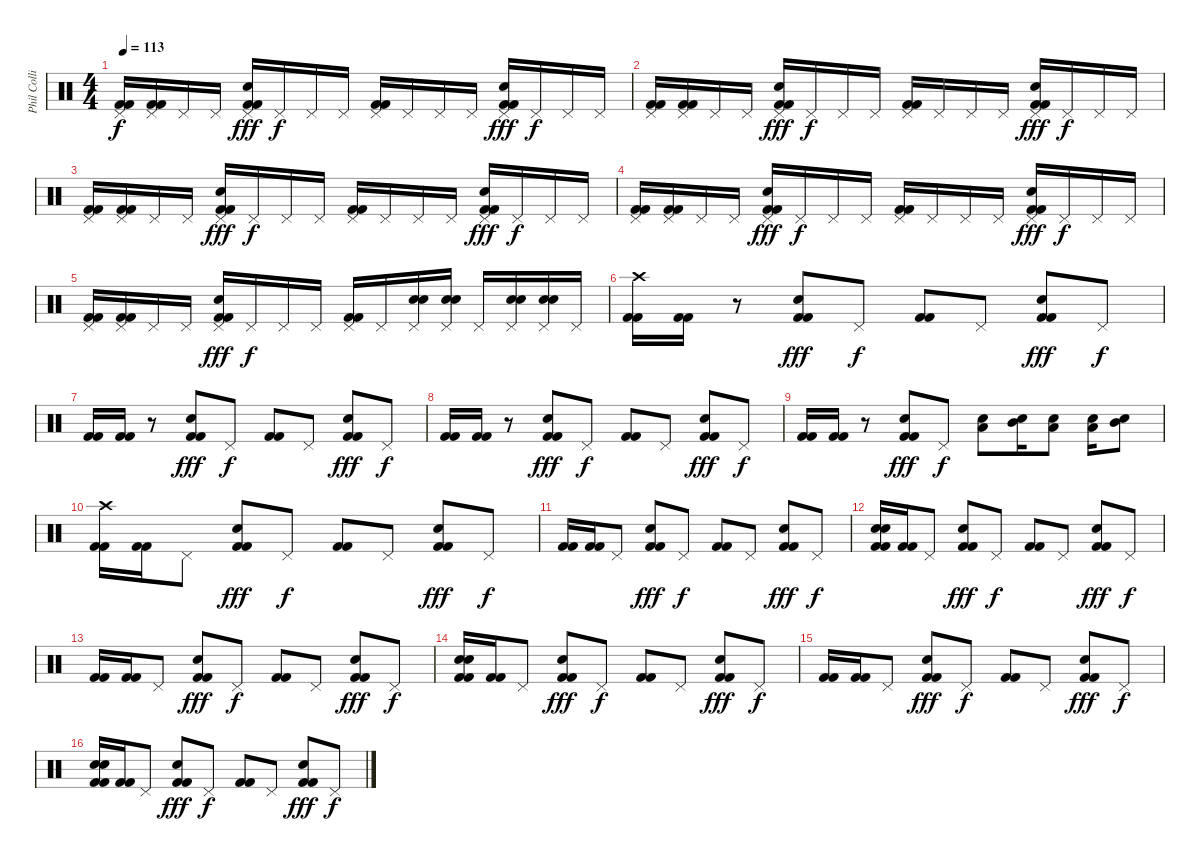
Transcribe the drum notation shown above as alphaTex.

\track ("Phil Collins" "Phil Colli") {instrument percussion}
\staff {score}
\articulation defaults
\ts (4 4)
\tempo 113
\clef neutral
\ks c
("Pedal Hi-Hat (hit)" "Kick (hit) 2" "Kick (hit) 2").16{dy f} ("Pedal Hi-Hat (hit)" "Kick (hit) 2" "Kick (hit) 2").16 "Pedal Hi-Hat (hit)".16 "Pedal Hi-Hat (hit)".16 ("Pedal Hi-Hat (hit)" "Electric Snare (hit)" "Kick (hit) 2" "Kick (hit) 2").16{dy fff} "Pedal Hi-Hat (hit)".16{dy f} "Pedal Hi-Hat (hit)".16 "Pedal Hi-Hat (hit)".16 ("Pedal Hi-Hat (hit)" "Kick (hit) 2" "Kick (hit) 2").16 "Pedal Hi-Hat (hit)".16 "Pedal Hi-Hat (hit)".16 "Pedal Hi-Hat (hit)".16 ("Pedal Hi-Hat (hit)" "Electric Snare (hit)" "Kick (hit) 2" "Kick (hit) 2").16{dy fff} "Pedal Hi-Hat (hit)".16{dy f} "Pedal Hi-Hat (hit)".16 "Pedal Hi-Hat (hit)".16 |
("Pedal Hi-Hat (hit)" "Kick (hit) 2" "Kick (hit) 2").16 ("Pedal Hi-Hat (hit)" "Kick (hit) 2" "Kick (hit) 2").16 "Pedal Hi-Hat (hit)".16 "Pedal Hi-Hat (hit)".16 ("Pedal Hi-Hat (hit)" "Electric Snare (hit)" "Kick (hit) 2" "Kick (hit) 2").16{dy fff} "Pedal Hi-Hat (hit)".16{dy f} "Pedal Hi-Hat (hit)".16 "Pedal Hi-Hat (hit)".16 ("Pedal Hi-Hat (hit)" "Kick (hit) 2" "Kick (hit) 2").16 "Pedal Hi-Hat (hit)".16 "Pedal Hi-Hat (hit)".16 "Pedal Hi-Hat (hit)".16 ("Pedal Hi-Hat (hit)" "Electric Snare (hit)" "Kick (hit) 2" "Kick (hit) 2").16{dy fff} "Pedal Hi-Hat (hit)".16{dy f} "Pedal Hi-Hat (hit)".16 "Pedal Hi-Hat (hit)".16 |
("Pedal Hi-Hat (hit)" "Kick (hit) 2" "Kick (hit) 2").16 ("Pedal Hi-Hat (hit)" "Kick (hit) 2" "Kick (hit) 2").16 "Pedal Hi-Hat (hit)".16 "Pedal Hi-Hat (hit)".16 ("Pedal Hi-Hat (hit)" "Electric Snare (hit)" "Kick (hit) 2" "Kick (hit) 2").16{dy fff} "Pedal Hi-Hat (hit)".16{dy f} "Pedal Hi-Hat (hit)".16 "Pedal Hi-Hat (hit)".16 ("Pedal Hi-Hat (hit)" "Kick (hit) 2" "Kick (hit) 2").16 "Pedal Hi-Hat (hit)".16 "Pedal Hi-Hat (hit)".16 "Pedal Hi-Hat (hit)".16 ("Pedal Hi-Hat (hit)" "Electric Snare (hit)" "Kick (hit) 2" "Kick (hit) 2").16{dy fff} "Pedal Hi-Hat (hit)".16{dy f} "Pedal Hi-Hat (hit)".16 "Pedal Hi-Hat (hit)".16 |
("Pedal Hi-Hat (hit)" "Kick (hit) 2" "Kick (hit) 2").16 ("Pedal Hi-Hat (hit)" "Kick (hit) 2" "Kick (hit) 2").16 "Pedal Hi-Hat (hit)".16 "Pedal Hi-Hat (hit)".16 ("Pedal Hi-Hat (hit)" "Electric Snare (hit)" "Kick (hit) 2" "Kick (hit) 2").16{dy fff} "Pedal Hi-Hat (hit)".16{dy f} "Pedal Hi-Hat (hit)".16 "Pedal Hi-Hat (hit)".16 ("Pedal Hi-Hat (hit)" "Kick (hit) 2" "Kick (hit) 2").16 "Pedal Hi-Hat (hit)".16 "Pedal Hi-Hat (hit)".16 "Pedal Hi-Hat (hit)".16 ("Pedal Hi-Hat (hit)" "Electric Snare (hit)" "Kick (hit) 2" "Kick (hit) 2").16{dy fff} "Pedal Hi-Hat (hit)".16{dy f} "Pedal Hi-Hat (hit)".16 "Pedal Hi-Hat (hit)".16 |
("Pedal Hi-Hat (hit)" "Kick (hit) 2" "Kick (hit) 2").16 ("Pedal Hi-Hat (hit)" "Kick (hit) 2" "Kick (hit) 2").16 "Pedal Hi-Hat (hit)".16 "Pedal Hi-Hat (hit)".16 ("Pedal Hi-Hat (hit)" "Electric Snare (hit)" "Kick (hit) 2" "Kick (hit) 2").16{dy fff} "Pedal Hi-Hat (hit)".16{dy f} "Pedal Hi-Hat (hit)".16 "Pedal Hi-Hat (hit)".16 ("Pedal Hi-Hat (hit)" "Kick (hit) 2" "Kick (hit) 2").16 "Pedal Hi-Hat (hit)".16 ("Pedal Hi-Hat (hit)" "Electric Snare (hit)" "Electric Snare (hit)").16 ("Pedal Hi-Hat (hit)" "Electric Snare (hit)" "Electric Snare (hit)").16 "Pedal Hi-Hat (hit)".16 ("Pedal Hi-Hat (hit)" "Electric Snare (hit)" "Electric Snare (hit)").16 ("Pedal Hi-Hat (hit)" "Electric Snare (hit)" "Electric Snare (hit)").16 "Pedal Hi-Hat (hit)".16 |
("Crash high (hit)" "Kick (hit) 2" "Kick (hit) 2").16 ("Kick (hit) 2" "Kick (hit) 2").16 r.8 ("Electric Snare (hit)" "Kick (hit) 2" "Kick (hit) 2").8{dy fff} "Pedal Hi-Hat (hit)".8{dy f} ("Kick (hit) 2" "Kick (hit) 2").8 "Pedal Hi-Hat (hit)".8 ("Electric Snare (hit)" "Kick (hit) 2" "Kick (hit) 2").8{dy fff} "Pedal Hi-Hat (hit)".8{dy f} |
("Kick (hit) 2" "Kick (hit) 2").16 ("Kick (hit) 2" "Kick (hit) 2").16 r.8 ("Electric Snare (hit)" "Kick (hit) 2" "Kick (hit) 2").8{dy fff} "Pedal Hi-Hat (hit)".8{dy f} ("Kick (hit) 2" "Kick (hit) 2").8 "Pedal Hi-Hat (hit)".8 ("Electric Snare (hit)" "Kick (hit) 2" "Kick (hit) 2").8{dy fff} "Pedal Hi-Hat (hit)".8{dy f} |
("Kick (hit) 2" "Kick (hit) 2").16 ("Kick (hit) 2" "Kick (hit) 2").16 r.8 ("Electric Snare (hit)" "Kick (hit) 2" "Kick (hit) 2").8{dy fff} "Pedal Hi-Hat (hit)".8{dy f} ("Kick (hit) 2" "Kick (hit) 2").8 "Pedal Hi-Hat (hit)".8 ("Electric Snare (hit)" "Kick (hit) 2" "Kick (hit) 2").8{dy fff} "Pedal Hi-Hat (hit)".8{dy f} |
("Kick (hit) 2" "Kick (hit) 2").16 ("Kick (hit) 2" "Kick (hit) 2").16 r.8 ("Electric Snare (hit)" "Kick (hit) 2" "Kick (hit) 2").8{dy fff} "Pedal Hi-Hat (hit)".8{dy f} ("Electric Snare (hit)" "Low Tom (hit)").8 ("Electric Snare (hit)" "Mid Tom (hit)").16 ("Electric Snare (hit)" "Low Tom (hit)").8 ("Electric Snare (hit)" "Low Tom (hit)").16 ("Electric Snare (hit)" "Mid Tom (hit)").8 |
("Crash high (hit)" "Kick (hit) 2" "Kick (hit) 2").16 ("Kick (hit) 2" "Kick (hit) 2").16 "Pedal Hi-Hat (hit)".8 ("Electric Snare (hit)" "Kick (hit) 2" "Kick (hit) 2").8{dy fff} "Pedal Hi-Hat (hit)".8{dy f} ("Kick (hit) 2" "Kick (hit) 2").8 "Pedal Hi-Hat (hit)".8 ("Electric Snare (hit)" "Kick (hit) 2" "Kick (hit) 2").8{dy fff} "Pedal Hi-Hat (hit)".8{dy f} |
("Kick (hit) 2" "Kick (hit) 2").16 ("Kick (hit) 2" "Kick (hit) 2").16 "Pedal Hi-Hat (hit)".8 ("Electric Snare (hit)" "Kick (hit) 2" "Kick (hit) 2").8{dy fff} "Pedal Hi-Hat (hit)".8{dy f} ("Kick (hit) 2" "Kick (hit) 2").8 "Pedal Hi-Hat (hit)".8 ("Electric Snare (hit)" "Kick (hit) 2" "Kick (hit) 2").8{dy fff} "Pedal Hi-Hat (hit)".8{dy f} |
("Hand Clap (hit)" "Kick (hit) 2" "Kick (hit) 2" "Hand Clap (hit)").16 ("Kick (hit) 2" "Kick (hit) 2").16 "Pedal Hi-Hat (hit)".8 ("Electric Snare (hit)" "Kick (hit) 2" "Kick (hit) 2").8{dy fff} "Pedal Hi-Hat (hit)".8{dy f} ("Kick (hit) 2" "Kick (hit) 2").8 "Pedal Hi-Hat (hit)".8 ("Electric Snare (hit)" "Kick (hit) 2" "Kick (hit) 2").8{dy fff} "Pedal Hi-Hat (hit)".8{dy f} |
("Kick (hit) 2" "Kick (hit) 2").16 ("Kick (hit) 2" "Kick (hit) 2").16 "Pedal Hi-Hat (hit)".8 ("Electric Snare (hit)" "Kick (hit) 2" "Kick (hit) 2").8{dy fff} "Pedal Hi-Hat (hit)".8{dy f} ("Kick (hit) 2" "Kick (hit) 2").8 "Pedal Hi-Hat (hit)".8 ("Electric Snare (hit)" "Kick (hit) 2" "Kick (hit) 2").8{dy fff} "Pedal Hi-Hat (hit)".8{dy f} |
("Hand Clap (hit)" "Kick (hit) 2" "Kick (hit) 2" "Hand Clap (hit)").16 ("Kick (hit) 2" "Kick (hit) 2").16 "Pedal Hi-Hat (hit)".8 ("Electric Snare (hit)" "Kick (hit) 2" "Kick (hit) 2").8{dy fff} "Pedal Hi-Hat (hit)".8{dy f} ("Kick (hit) 2" "Kick (hit) 2").8 "Pedal Hi-Hat (hit)".8 ("Electric Snare (hit)" "Kick (hit) 2" "Kick (hit) 2").8{dy fff} "Pedal Hi-Hat (hit)".8{dy f} |
("Kick (hit) 2" "Kick (hit) 2").16 ("Kick (hit) 2" "Kick (hit) 2").16 "Pedal Hi-Hat (hit)".8 ("Electric Snare (hit)" "Kick (hit) 2" "Kick (hit) 2").8{dy fff} "Pedal Hi-Hat (hit)".8{dy f} ("Kick (hit) 2" "Kick (hit) 2").8 "Pedal Hi-Hat (hit)".8 ("Electric Snare (hit)" "Kick (hit) 2" "Kick (hit) 2").8{dy fff} "Pedal Hi-Hat (hit)".8{dy f} |
("Hand Clap (hit)" "Kick (hit) 2" "Kick (hit) 2" "Hand Clap (hit)").16 ("Kick (hit) 2" "Kick (hit) 2").16 "Pedal Hi-Hat (hit)".8 ("Electric Snare (hit)" "Kick (hit) 2" "Kick (hit) 2").8{dy fff} "Pedal Hi-Hat (hit)".8{dy f} ("Kick (hit) 2" "Kick (hit) 2").8 "Pedal Hi-Hat (hit)".8 ("Electric Snare (hit)" "Kick (hit) 2" "Kick (hit) 2").8{dy fff} "Pedal Hi-Hat (hit)".8{dy f}
